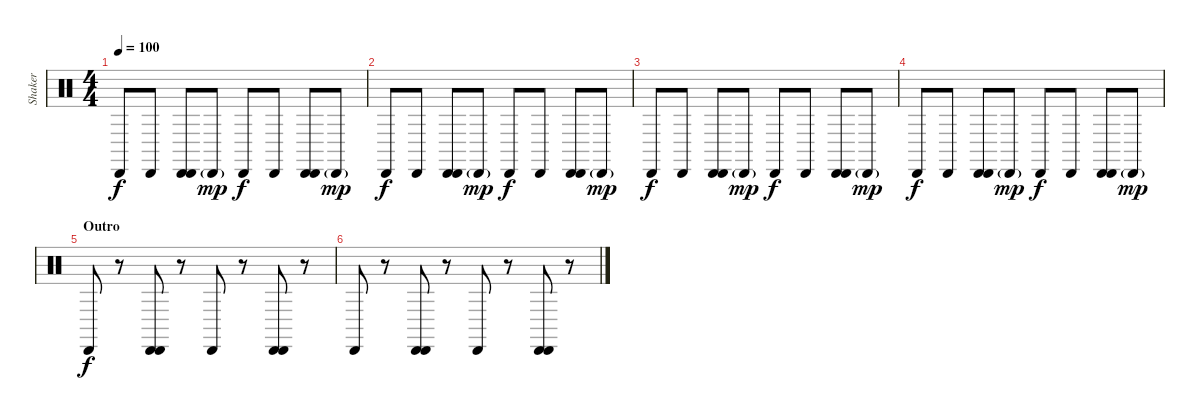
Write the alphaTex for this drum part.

\track ("Shaker" "Shaker") {instrument percussion}
\staff {score}
\articulation defaults
\ts (4 4)
\tempo 100
\clef neutral
\ks c "Cabasa (hit)".8{dy f} "Cabasa (hit)".8
("Cabasa (hit)" "Cabasa (hit)").8 "Cabasa (hit)"{g}.8{dy mp} "Cabasa (hit)".8{dy f} "Cabasa (hit)".8 ("Cabasa (hit)" "Cabasa (hit)").8 "Cabasa (hit)"{g}.8{dy mp} |
"Cabasa (hit)".8{dy f} "Cabasa (hit)".8 ("Cabasa (hit)" "Cabasa (hit)").8 "Cabasa (hit)"{g}.8{dy mp} "Cabasa (hit)".8{dy f} "Cabasa (hit)".8 ("Cabasa (hit)" "Cabasa (hit)").8 "Cabasa (hit)"{g}.8{dy mp} |
"Cabasa (hit)".8{dy f} "Cabasa (hit)".8 ("Cabasa (hit)" "Cabasa (hit)").8 "Cabasa (hit)"{g}.8{dy mp} "Cabasa (hit)".8{dy f} "Cabasa (hit)".8 ("Cabasa (hit)" "Cabasa (hit)").8 "Cabasa (hit)"{g}.8{dy mp} |
"Cabasa (hit)".8{dy f} "Cabasa (hit)".8 ("Cabasa (hit)" "Cabasa (hit)").8 "Cabasa (hit)"{g}.8{dy mp} "Cabasa (hit)".8{dy f} "Cabasa (hit)".8 ("Cabasa (hit)" "Cabasa (hit)").8 "Cabasa (hit)"{g}.8{dy mp} |
\section ("" "Outro")
"Cabasa (hit)".8{dy f} r.8 ("Cabasa (hit)" "Cabasa (hit)").8 r.8 "Cabasa (hit)".8 r.8 ("Cabasa (hit)" "Cabasa (hit)").8 r.8 |
"Cabasa (hit)".8 r.8 ("Cabasa (hit)" "Cabasa (hit)").8 r.8 "Cabasa (hit)".8 r.8 ("Cabasa (hit)" "Cabasa (hit)").8 r.8
